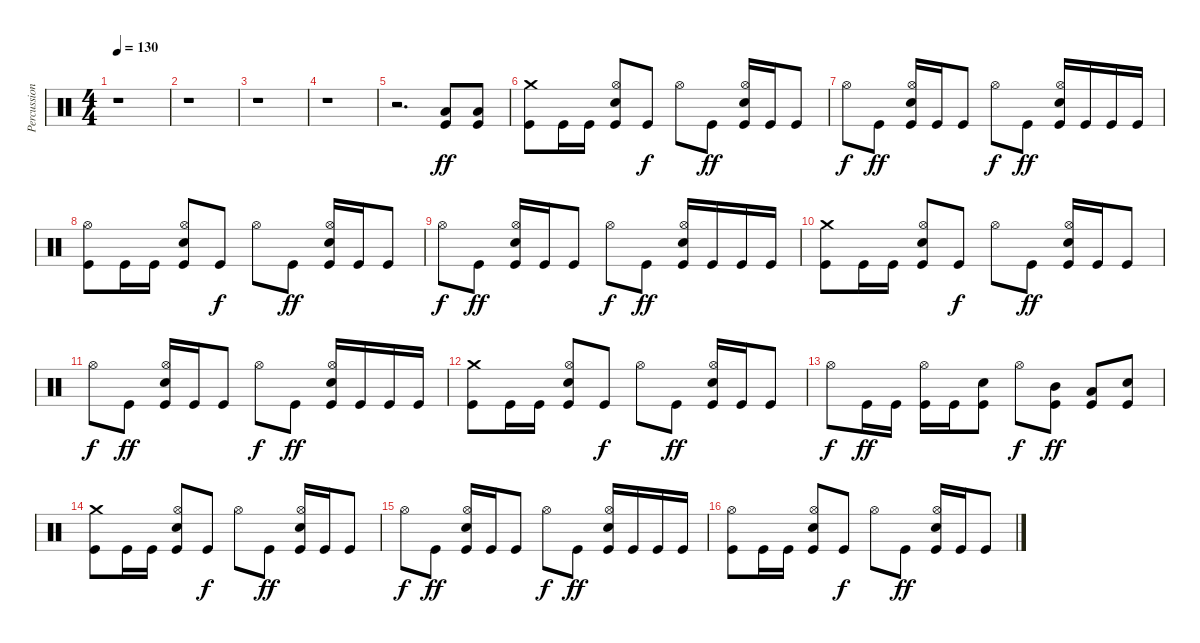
\track ("Percussion" "Percussion") {instrument percussion}
\staff {score}
\articulation defaults
\ts (4 4)
\tempo 130
\clef neutral
\ks c
r.1{dy f} |
r.1 |
r.1 |
r.1 |
r.2{d} ("Low Tom (hit)" "Kick (hit)").8{dy ff} ("Low Tom (hit)" "Kick (hit)").8 |
("Crash medium (hit)" "Kick (hit)").8 "Kick (hit)".16 "Kick (hit)".16 ("Hi-Hat (open)" "Snare (hit) 2" "Kick (hit)").8 "Kick (hit)".8{dy f} "Hi-Hat (open)".8 "Kick (hit)".8{dy ff} ("Hi-Hat (open)" "Snare (hit) 2" "Kick (hit)").16 "Kick (hit)".16 "Kick (hit)".8 |
"Hi-Hat (open)".8{dy f} "Kick (hit)".8{dy ff} ("Hi-Hat (open)" "Snare (hit) 2" "Kick (hit)").16 "Kick (hit)".16 "Kick (hit)".8 "Hi-Hat (open)".8{dy f} "Kick (hit)".8{dy ff} ("Hi-Hat (open)" "Snare (hit) 2" "Kick (hit)").16 "Kick (hit)".16 "Kick (hit)".16 "Kick (hit)".16 |
("Hi-Hat (open)" "Kick (hit)").8 "Kick (hit)".16 "Kick (hit)".16 ("Hi-Hat (open)" "Snare (hit) 2" "Kick (hit)").8 "Kick (hit)".8{dy f} "Hi-Hat (open)".8 "Kick (hit)".8{dy ff} ("Hi-Hat (open)" "Snare (hit) 2" "Kick (hit)").16 "Kick (hit)".16 "Kick (hit)".8 |
"Hi-Hat (open)".8{dy f} "Kick (hit)".8{dy ff} ("Hi-Hat (open)" "Snare (hit) 2" "Kick (hit)").16 "Kick (hit)".16 "Kick (hit)".8 "Hi-Hat (open)".8{dy f} "Kick (hit)".8{dy ff} ("Hi-Hat (open)" "Snare (hit) 2" "Kick (hit)").16 "Kick (hit)".16 "Kick (hit)".16 "Kick (hit)".16 |
("Crash medium (hit)" "Kick (hit)").8 "Kick (hit)".16 "Kick (hit)".16 ("Hi-Hat (open)" "Snare (hit) 2" "Kick (hit)").8 "Kick (hit)".8{dy f} "Hi-Hat (open)".8 "Kick (hit)".8{dy ff} ("Hi-Hat (open)" "Snare (hit) 2" "Kick (hit)").16 "Kick (hit)".16 "Kick (hit)".8 |
"Hi-Hat (open)".8{dy f} "Kick (hit)".8{dy ff} ("Hi-Hat (open)" "Snare (hit) 2" "Kick (hit)").16 "Kick (hit)".16 "Kick (hit)".8 "Hi-Hat (open)".8{dy f} "Kick (hit)".8{dy ff} ("Hi-Hat (open)" "Snare (hit) 2" "Kick (hit)").16 "Kick (hit)".16 "Kick (hit)".16 "Kick (hit)".16 |
("Crash medium (hit)" "Kick (hit)").8 "Kick (hit)".16 "Kick (hit)".16 ("Hi-Hat (open)" "Snare (hit) 2" "Kick (hit)").8 "Kick (hit)".8{dy f} "Hi-Hat (open)".8 "Kick (hit)".8{dy ff} ("Hi-Hat (open)" "Snare (hit) 2" "Kick (hit)").16 "Kick (hit)".16 "Kick (hit)".8 |
"Hi-Hat (open)".8{dy f} "Kick (hit)".16{dy ff} "Kick (hit)".16 ("Hi-Hat (open)" "Kick (hit)").16 "Kick (hit)".16 ("Snare (hit) 2" "Kick (hit)").8 "Hi-Hat (open)".8{dy f} ("Mid Tom (hit)"{tr (47 16)} "Kick (hit)").8{dy ff} ("Low Tom (hit)"{tr (45 16)} "Kick (hit)").8 ("Snare (hit) 2" "Kick (hit)").8 |
("Crash medium (hit)" "Kick (hit)").8 "Kick (hit)".16 "Kick (hit)".16 ("Hi-Hat (open)" "Snare (hit) 2" "Kick (hit)").8 "Kick (hit)".8{dy f} "Hi-Hat (open)".8 "Kick (hit)".8{dy ff} ("Hi-Hat (open)" "Snare (hit) 2" "Kick (hit)").16 "Kick (hit)".16 "Kick (hit)".8 |
"Hi-Hat (open)".8{dy f} "Kick (hit)".8{dy ff} ("Hi-Hat (open)" "Snare (hit) 2" "Kick (hit)").16 "Kick (hit)".16 "Kick (hit)".8 "Hi-Hat (open)".8{dy f} "Kick (hit)".8{dy ff} ("Hi-Hat (open)" "Snare (hit) 2" "Kick (hit)").16 "Kick (hit)".16 "Kick (hit)".16 "Kick (hit)".16 |
("Hi-Hat (open)" "Kick (hit)").8 "Kick (hit)".16 "Kick (hit)".16 ("Hi-Hat (open)" "Snare (hit) 2" "Kick (hit)").8 "Kick (hit)".8{dy f} "Hi-Hat (open)".8 "Kick (hit)".8{dy ff} ("Hi-Hat (open)" "Snare (hit) 2" "Kick (hit)").16 "Kick (hit)".16 "Kick (hit)".8
